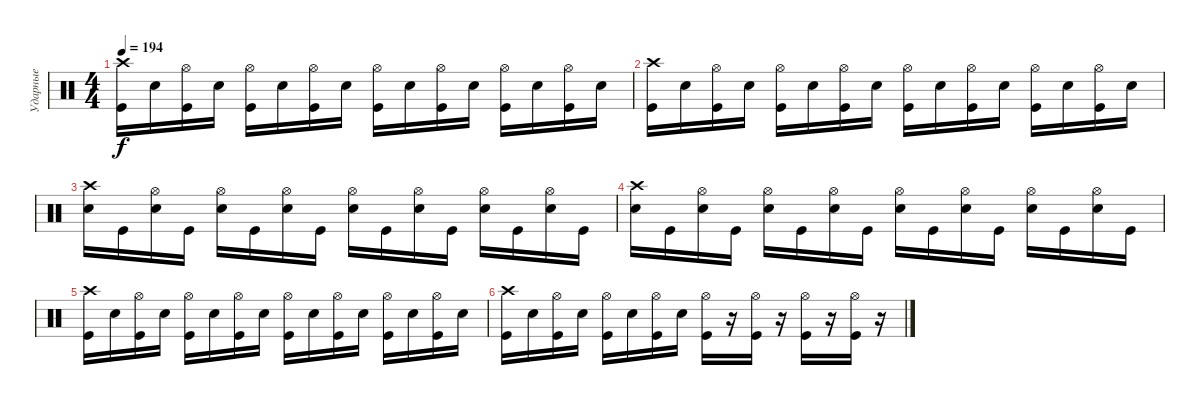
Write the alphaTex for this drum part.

\track ("Ударные" "Ударные") {instrument percussion}
\staff {score}
\articulation defaults
\ts (4 4)
\tempo 194
\clef neutral
\ks c
("Crash high (hit)" "Kick (hit)").16{dy f} "Electric Snare (hit)".16 ("Hi-Hat (open)" "Kick (hit)").16 "Electric Snare (hit)".16 ("Hi-Hat (open)" "Kick (hit)").16 "Electric Snare (hit)".16 ("Hi-Hat (open)" "Kick (hit)").16 "Electric Snare (hit)".16 ("Hi-Hat (open)" "Kick (hit)").16 "Electric Snare (hit)".16 ("Hi-Hat (open)" "Kick (hit)").16 "Electric Snare (hit)".16 ("Hi-Hat (open)" "Kick (hit)").16 "Electric Snare (hit)".16 ("Hi-Hat (open)" "Kick (hit)").16 "Electric Snare (hit)".16 |
("Crash high (hit)" "Kick (hit)").16 "Electric Snare (hit)".16 ("Hi-Hat (open)" "Kick (hit)").16 "Electric Snare (hit)".16 ("Hi-Hat (open)" "Kick (hit)").16 "Electric Snare (hit)".16 ("Hi-Hat (open)" "Kick (hit)").16 "Electric Snare (hit)".16 ("Hi-Hat (open)" "Kick (hit)").16 "Electric Snare (hit)".16 ("Hi-Hat (open)" "Kick (hit)").16 "Electric Snare (hit)".16 ("Hi-Hat (open)" "Kick (hit)").16 "Electric Snare (hit)".16 ("Hi-Hat (open)" "Kick (hit)").16 "Electric Snare (hit)".16 |
("Crash high (hit)" "Electric Snare (hit)").16 "Kick (hit)".16 ("Hi-Hat (open)" "Electric Snare (hit)").16 "Kick (hit)".16 ("Hi-Hat (open)" "Electric Snare (hit)").16 "Kick (hit)".16 ("Hi-Hat (open)" "Electric Snare (hit)").16 "Kick (hit)".16 ("Hi-Hat (open)" "Electric Snare (hit)").16 "Kick (hit)".16 ("Hi-Hat (open)" "Electric Snare (hit)").16 "Kick (hit)".16 ("Hi-Hat (open)" "Electric Snare (hit)").16 "Kick (hit)".16 ("Hi-Hat (open)" "Electric Snare (hit)").16 "Kick (hit)".16 |
("Crash high (hit)" "Electric Snare (hit)").16 "Kick (hit)".16 ("Hi-Hat (open)" "Electric Snare (hit)").16 "Kick (hit)".16 ("Hi-Hat (open)" "Electric Snare (hit)").16 "Kick (hit)".16 ("Hi-Hat (open)" "Electric Snare (hit)").16 "Kick (hit)".16 ("Hi-Hat (open)" "Electric Snare (hit)").16 "Kick (hit)".16 ("Hi-Hat (open)" "Electric Snare (hit)").16 "Kick (hit)".16 ("Hi-Hat (open)" "Electric Snare (hit)").16 "Kick (hit)".16 ("Hi-Hat (open)" "Electric Snare (hit)").16 "Kick (hit)".16 |
("Crash high (hit)" "Kick (hit)").16 "Electric Snare (hit)".16 ("Hi-Hat (open)" "Kick (hit)").16 "Electric Snare (hit)".16 ("Hi-Hat (open)" "Kick (hit)").16 "Electric Snare (hit)".16 ("Hi-Hat (open)" "Kick (hit)").16 "Electric Snare (hit)".16 ("Hi-Hat (open)" "Kick (hit)").16 "Electric Snare (hit)".16 ("Hi-Hat (open)" "Kick (hit)").16 "Electric Snare (hit)".16 ("Hi-Hat (open)" "Kick (hit)").16 "Electric Snare (hit)".16 ("Hi-Hat (open)" "Kick (hit)").16 "Electric Snare (hit)".16 |
("Crash high (hit)" "Kick (hit)").16 "Electric Snare (hit)".16 ("Hi-Hat (open)" "Kick (hit)").16 "Electric Snare (hit)".16 ("Hi-Hat (open)" "Kick (hit)").16 "Electric Snare (hit)".16 ("Hi-Hat (open)" "Kick (hit)").16 "Electric Snare (hit)".16 ("Hi-Hat (open)" "Kick (hit)").16 r.16 ("Hi-Hat (open)" "Kick (hit)").16 r.16 ("Hi-Hat (open)" "Kick (hit)").16 r.16 ("Hi-Hat (open)" "Kick (hit)").16 r.16
